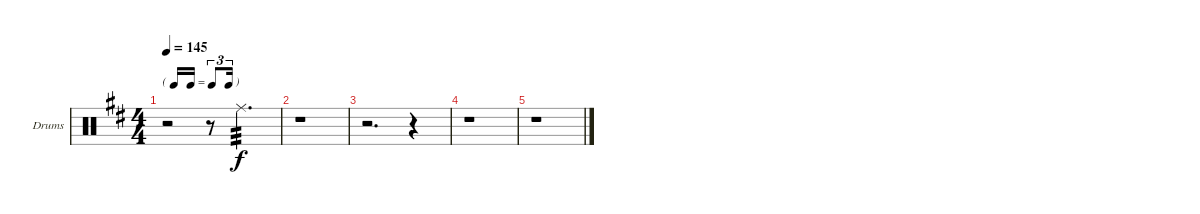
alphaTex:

\bracketExtendMode groupsimilarinstruments
\firstSystemTrackNameOrientation horizontal
\otherSystemsTrackNameOrientation horizontal
\track ("Drumkit" "Drums") {mute instrument percussion}
\staff {score}
\articulation defaults
\ts (4 4)
\tf triplet16th
\tempo 145
\clef neutral
\ks d
r.2{dy f} r.8 "Ride (middle)".4{d tp 3} |
r.1 |
r.2{d} r.4 |
r.1 |
r.1
